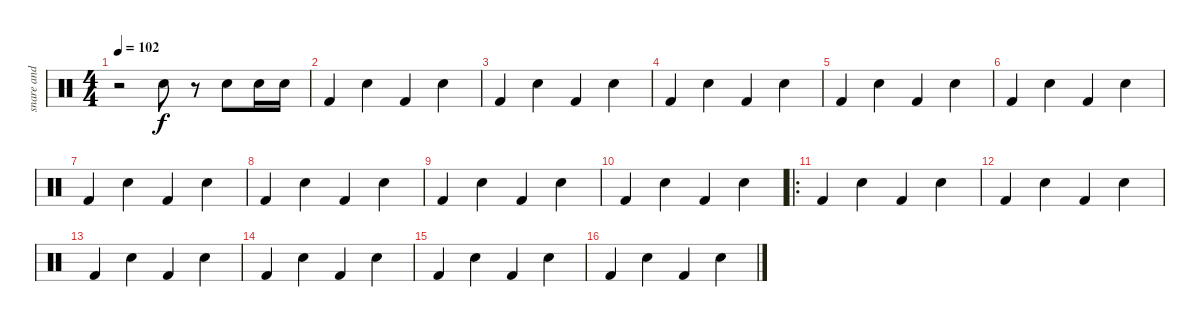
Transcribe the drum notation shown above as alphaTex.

\track ("snare and B.drum" "snare and ") {instrument percussion}
\staff {score}
\articulation defaults
\ts (4 4)
\tempo 102
\clef neutral
\ks c
r.2{dy f} "Electric Snare (hit)".8 r.8 "Electric Snare (hit)".8 "Electric Snare (hit)".16 "Electric Snare (hit)".16 |
"Kick (hit) 2".4 "Electric Snare (hit)".4 "Kick (hit) 2".4 "Electric Snare (hit)".4 |
"Kick (hit) 2".4 "Electric Snare (hit)".4 "Kick (hit) 2".4 "Electric Snare (hit)".4 |
"Kick (hit) 2".4 "Electric Snare (hit)".4 "Kick (hit) 2".4 "Electric Snare (hit)".4 |
"Kick (hit) 2".4 "Electric Snare (hit)".4 "Kick (hit) 2".4 "Electric Snare (hit)".4 |
"Kick (hit) 2".4 "Electric Snare (hit)".4 "Kick (hit) 2".4 "Electric Snare (hit)".4 |
"Kick (hit) 2".4 "Electric Snare (hit)".4 "Kick (hit) 2".4 "Electric Snare (hit)".4 |
"Kick (hit) 2".4 "Electric Snare (hit)".4 "Kick (hit) 2".4 "Electric Snare (hit)".4 |
"Kick (hit) 2".4 "Electric Snare (hit)".4 "Kick (hit) 2".4 "Electric Snare (hit)".4 |
"Kick (hit) 2".4 "Electric Snare (hit)".4 "Kick (hit) 2".4 "Electric Snare (hit)".4 |
\ro "Kick (hit) 2".4 "Electric Snare (hit)".4 "Kick (hit) 2".4 "Electric Snare (hit)".4
|
"Kick (hit) 2".4 "Electric Snare (hit)".4 "Kick (hit) 2".4 "Electric Snare (hit)".4 |
"Kick (hit) 2".4 "Electric Snare (hit)".4 "Kick (hit) 2".4 "Electric Snare (hit)".4 |
"Kick (hit) 2".4 "Electric Snare (hit)".4 "Kick (hit) 2".4 "Electric Snare (hit)".4 |
"Kick (hit) 2".4 "Electric Snare (hit)".4 "Kick (hit) 2".4 "Electric Snare (hit)".4 |
"Kick (hit) 2".4 "Electric Snare (hit)".4 "Kick (hit) 2".4 "Electric Snare (hit)".4
